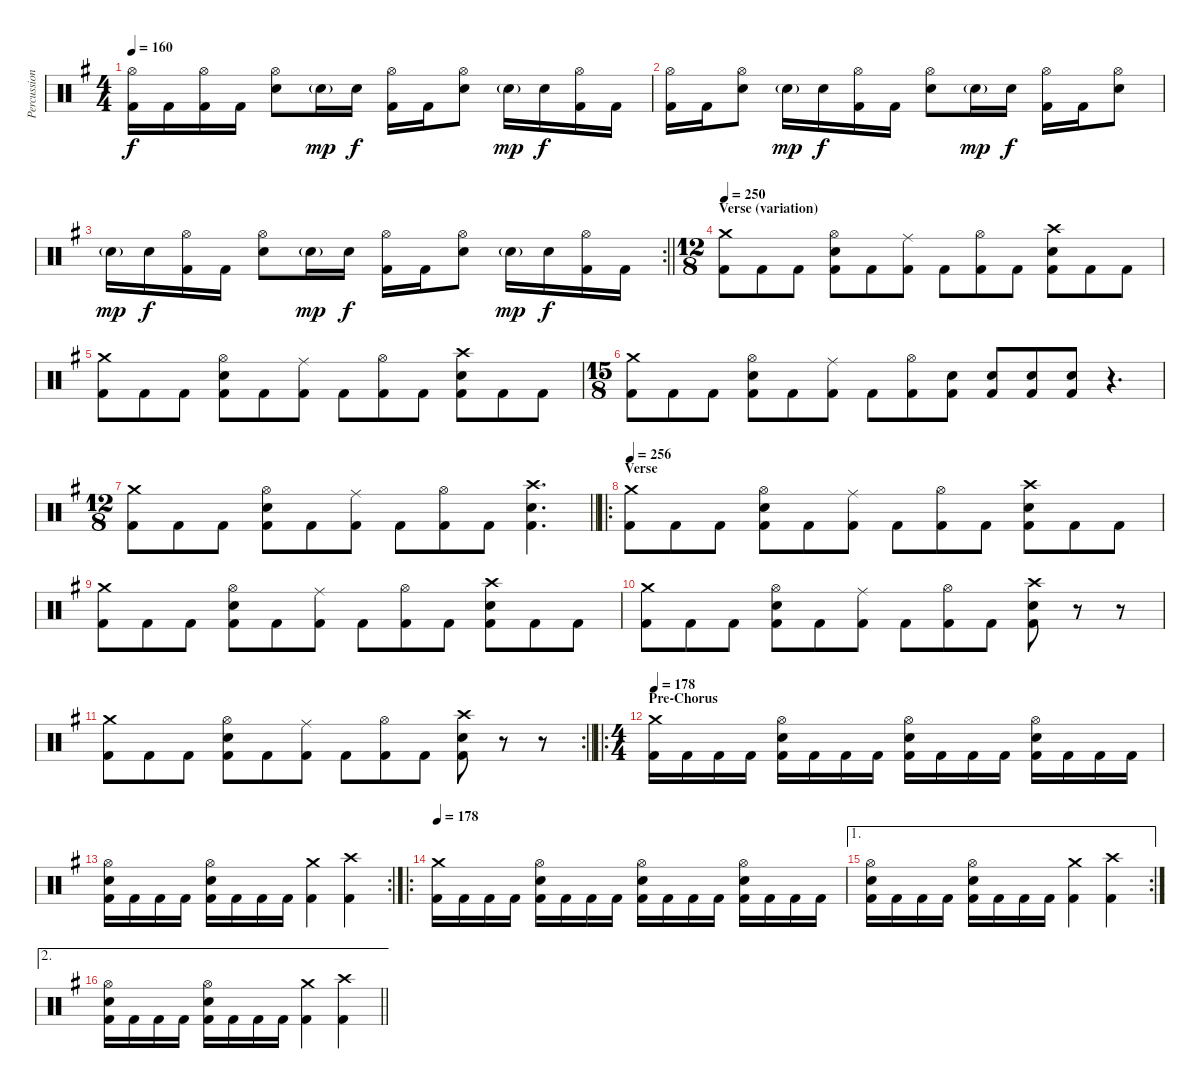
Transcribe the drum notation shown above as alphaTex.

\track ("Percussion" "Percussion") {instrument percussion}
\staff {score}
\articulation defaults
\ts (4 4)
\tempo 160
\clef neutral
\ks eminor
("Hi-Hat (open)" "Kick (hit) 2").16{dy f} "Kick (hit) 2".16 ("Hi-Hat (open)" "Kick (hit) 2").16 "Kick (hit) 2".16 ("Hi-Hat (open)" "Electric Snare (hit)").8 "Electric Snare (hit)"{g}.16{dy mp} "Electric Snare (hit)".16{dy f} ("Hi-Hat (open)" "Kick (hit) 2").16 "Kick (hit) 2".16 ("Hi-Hat (open)" "Electric Snare (hit)").8 "Electric Snare (hit)"{g}.16{dy mp} "Electric Snare (hit)".16{dy f} ("Hi-Hat (open)" "Kick (hit) 2").16 "Kick (hit) 2".16 |
("Hi-Hat (open)" "Kick (hit) 2").16 "Kick (hit) 2".16 ("Hi-Hat (open)" "Electric Snare (hit)").8 "Electric Snare (hit)"{g}.16{dy mp} "Electric Snare (hit)".16{dy f} ("Hi-Hat (open)" "Kick (hit) 2").16 "Kick (hit) 2".16 ("Hi-Hat (open)" "Electric Snare (hit)").8 "Electric Snare (hit)"{g}.16{dy mp} "Electric Snare (hit)".16{dy f} ("Hi-Hat (open)" "Kick (hit) 2").16 "Kick (hit) 2".16 ("Hi-Hat (open)" "Electric Snare (hit)").8 |
\rc 2
\barLineRight lightlight "Electric Snare (hit)"{g}.16{dy mp} "Electric Snare (hit)".16{dy f}
("Hi-Hat (open)" "Kick (hit) 2").16 "Kick (hit) 2".16 ("Hi-Hat (open)" "Electric Snare (hit)").8 "Electric Snare (hit)"{g}.16{dy mp} "Electric Snare (hit)".16{dy f} ("Hi-Hat (open)" "Kick (hit) 2").16 "Kick (hit) 2".16 ("Hi-Hat (open)" "Electric Snare (hit)").8 "Electric Snare (hit)"{g}.16{dy mp} "Electric Snare (hit)".16{dy f} ("Hi-Hat (open)" "Kick (hit) 2").16 "Kick (hit) 2".16 |
\ts (12 8)
\section ("" "Verse (variation)")
\tempo 250
("Crash medium (hit)" "Kick (hit) 2").8 "Kick (hit) 2".8 "Kick (hit) 2".8 ("Hi-Hat (open)" "Electric Snare (hit)" "Kick (hit) 2").8 "Kick (hit) 2".8 ("Ride (middle)" "Kick (hit) 2").8 "Kick (hit) 2".8 ("Hi-Hat (open)" "Kick (hit) 2").8 "Kick (hit) 2".8 ("Crash high (hit)" "Electric Snare (hit)" "Kick (hit) 2").8 "Kick (hit) 2".8 "Kick (hit) 2".8 |
("Crash medium (hit)" "Kick (hit) 2").8 "Kick (hit) 2".8 "Kick (hit) 2".8 ("Hi-Hat (open)" "Electric Snare (hit)" "Kick (hit) 2").8 "Kick (hit) 2".8 ("Ride (middle)" "Kick (hit) 2").8 "Kick (hit) 2".8 ("Hi-Hat (open)" "Kick (hit) 2").8 "Kick (hit) 2".8 ("Crash high (hit)" "Electric Snare (hit)" "Kick (hit) 2").8 "Kick (hit) 2".8 "Kick (hit) 2".8 |
\ts (15 8)
("Crash medium (hit)" "Kick (hit) 2").8 "Kick (hit) 2".8 "Kick (hit) 2".8 ("Hi-Hat (open)" "Electric Snare (hit)" "Kick (hit) 2").8 "Kick (hit) 2".8 ("Ride (middle)" "Kick (hit) 2").8 "Kick (hit) 2".8 ("Hi-Hat (open)" "Kick (hit) 2").8 ("Electric Snare (hit)" "Kick (hit) 2").8 ("Electric Snare (hit)" "Kick (hit) 2").8 ("Electric Snare (hit)" "Kick (hit) 2").8 ("Electric Snare (hit)" "Kick (hit) 2").8 r.4{d} |
\ts (12 8)
\barLineRight lightlight
("Crash medium (hit)" "Kick (hit) 2").8 "Kick (hit) 2".8 "Kick (hit) 2".8 ("Hi-Hat (open)" "Electric Snare (hit)" "Kick (hit) 2").8 "Kick (hit) 2".8 ("Ride (middle)" "Kick (hit) 2").8 "Kick (hit) 2".8 ("Hi-Hat (open)" "Kick (hit) 2").8 "Kick (hit) 2".8 ("Crash high (hit)" "Electric Snare (hit)" "Kick (hit) 2").4{d} |
\ro
\section ("" "Verse")
\tempo 256
("Crash medium (hit)" "Kick (hit) 2").8 "Kick (hit) 2".8 "Kick (hit) 2".8 ("Hi-Hat (open)" "Electric Snare (hit)" "Kick (hit) 2").8 "Kick (hit) 2".8 ("Ride (middle)" "Kick (hit) 2").8 "Kick (hit) 2".8 ("Hi-Hat (open)" "Kick (hit) 2").8 "Kick (hit) 2".8 ("Crash high (hit)" "Electric Snare (hit)" "Kick (hit) 2").8 "Kick (hit) 2".8 "Kick (hit) 2".8 |
("Crash medium (hit)" "Kick (hit) 2").8 "Kick (hit) 2".8 "Kick (hit) 2".8 ("Hi-Hat (open)" "Electric Snare (hit)" "Kick (hit) 2").8 "Kick (hit) 2".8 ("Ride (middle)" "Kick (hit) 2").8 "Kick (hit) 2".8 ("Hi-Hat (open)" "Kick (hit) 2").8 "Kick (hit) 2".8 ("Crash high (hit)" "Electric Snare (hit)" "Kick (hit) 2").8 "Kick (hit) 2".8 "Kick (hit) 2".8 |
("Crash medium (hit)" "Kick (hit) 2").8 "Kick (hit) 2".8 "Kick (hit) 2".8 ("Hi-Hat (open)" "Electric Snare (hit)" "Kick (hit) 2").8 "Kick (hit) 2".8 ("Ride (middle)" "Kick (hit) 2").8 "Kick (hit) 2".8 ("Hi-Hat (open)" "Kick (hit) 2").8 "Kick (hit) 2".8 ("Crash high (hit)" "Electric Snare (hit)" "Kick (hit) 2").8 r.8 r.8 |
\rc 2
\barLineRight lightlight
("Crash medium (hit)" "Kick (hit) 2").8 "Kick (hit) 2".8 "Kick (hit) 2".8 ("Hi-Hat (open)" "Electric Snare (hit)" "Kick (hit) 2").8 "Kick (hit) 2".8 ("Ride (middle)" "Kick (hit) 2").8 "Kick (hit) 2".8 ("Hi-Hat (open)" "Kick (hit) 2").8 "Kick (hit) 2".8 ("Crash high (hit)" "Electric Snare (hit)" "Kick (hit) 2").8 r.8 r.8 |
\ro
\ts (4 4)
\section ("" "Pre-Chorus")
\tempo 178
("Crash medium (hit)" "Kick (hit) 2").16 "Kick (hit) 2".16 "Kick (hit) 2".16 "Kick (hit) 2".16 ("Hi-Hat (open)" "Electric Snare (hit)" "Kick (hit) 2").16 "Kick (hit) 2".16 "Kick (hit) 2".16 "Kick (hit) 2".16 ("Hi-Hat (open)" "Electric Snare (hit)" "Kick (hit) 2").16 "Kick (hit) 2".16 "Kick (hit) 2".16 "Kick (hit) 2".16 ("Hi-Hat (open)" "Electric Snare (hit)" "Kick (hit) 2").16 "Kick (hit) 2".16 "Kick (hit) 2".16 "Kick (hit) 2".16 |
\rc 2
("Hi-Hat (open)" "Electric Snare (hit)" "Kick (hit) 2").16 "Kick (hit) 2".16 "Kick (hit) 2".16 "Kick (hit) 2".16 ("Hi-Hat (open)" "Electric Snare (hit)" "Kick (hit) 2").16 "Kick (hit) 2".16 "Kick (hit) 2".16 "Kick (hit) 2".16 ("Crash medium (hit)" "Kick (hit) 2").4 ("Crash high (hit)" "Kick (hit) 2").4 |
\ro
\tempo 178
("Crash medium (hit)" "Kick (hit) 2").16 "Kick (hit) 2".16 "Kick (hit) 2".16 "Kick (hit) 2".16 ("Hi-Hat (open)" "Electric Snare (hit)" "Kick (hit) 2").16 "Kick (hit) 2".16 "Kick (hit) 2".16 "Kick (hit) 2".16 ("Hi-Hat (open)" "Electric Snare (hit)" "Kick (hit) 2").16 "Kick (hit) 2".16 "Kick (hit) 2".16 "Kick (hit) 2".16 ("Hi-Hat (open)" "Electric Snare (hit)" "Kick (hit) 2").16 "Kick (hit) 2".16 "Kick (hit) 2".16 "Kick (hit) 2".16 |
\ae 1
\rc 2
("Hi-Hat (open)" "Electric Snare (hit)" "Kick (hit) 2").16 "Kick (hit) 2".16 "Kick (hit) 2".16 "Kick (hit) 2".16 ("Hi-Hat (open)" "Electric Snare (hit)" "Kick (hit) 2").16 "Kick (hit) 2".16 "Kick (hit) 2".16 "Kick (hit) 2".16 ("Crash medium (hit)" "Kick (hit) 2").4 ("Crash high (hit)" "Kick (hit) 2").4 |
\ae 2
\barLineRight lightlight
("Hi-Hat (open)" "Electric Snare (hit)" "Kick (hit) 2").16 "Kick (hit) 2".16 "Kick (hit) 2".16 "Kick (hit) 2".16 ("Hi-Hat (open)" "Electric Snare (hit)" "Kick (hit) 2").16 "Kick (hit) 2".16 "Kick (hit) 2".16 "Kick (hit) 2".16 ("Crash medium (hit)" "Kick (hit) 2").4 ("Crash high (hit)" "Kick (hit) 2").4
